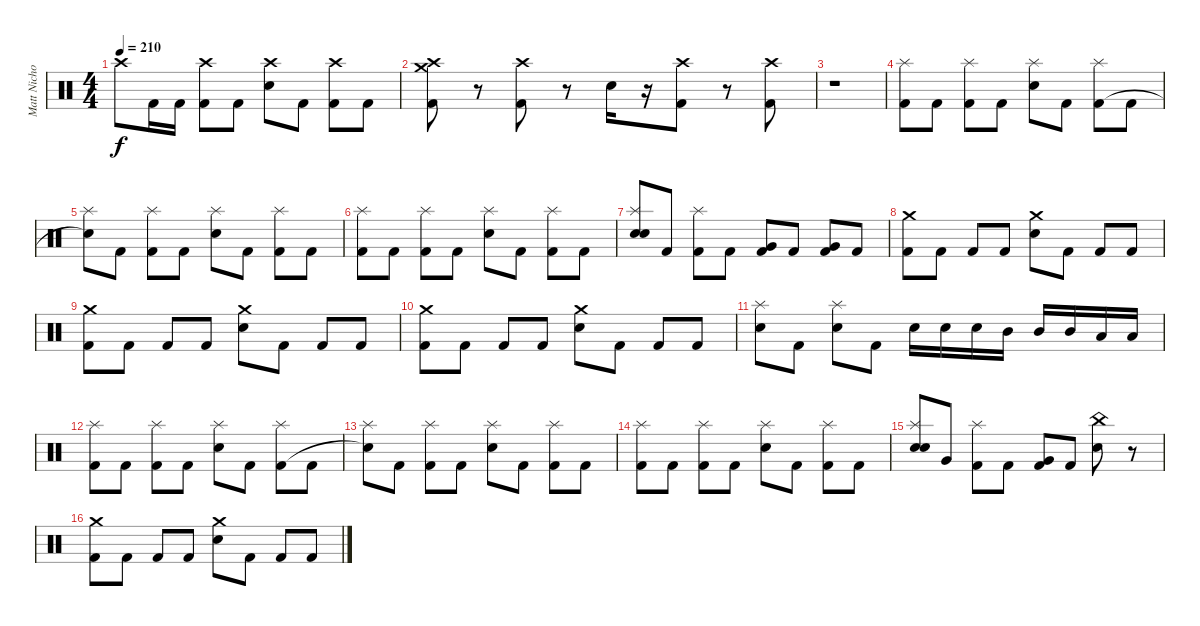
\track ("Matt Nichols" "Matt Nicho") {instrument percussion}
\staff {score}
\articulation defaults
\ts (4 4)
\tempo 210
\clef neutral
\ks c "Crash high (hit)".8{dy f} "Kick (hit) 2".16 "Kick (hit) 2".16
("Crash high (hit)" "Kick (hit) 2").8 "Kick (hit) 2".8 ("Crash high (hit)" "Snare (hit) 2").8 "Kick (hit) 2".8 ("Crash high (hit)" "Kick (hit) 2").8 "Kick (hit) 2".8 |
("Crash high (hit)" "Crash medium (hit)" "Kick (hit) 2").8 r.8 ("Crash high (hit)" "Kick (hit) 2").8 r.8 "Snare (hit) 2".16 r.16 ("Crash high (hit)" "Kick (hit) 2").8 r.8 ("Crash high (hit)" "Kick (hit) 2").8 |
r.1 |
("Splash (hit)" "Kick (hit) 2").8 "Kick (hit) 2".8 ("Splash (hit)" "Kick (hit) 2").8 "Kick (hit) 2".8 ("Splash (hit)" "Electric Snare (hit)").8 "Kick (hit) 2".8 ("Splash (hit)" "Kick (hit) 2").8 "Kick (hit) 2".8 |
("Splash (hit)" "Snare (hit)"{t}).8 "Kick (hit) 2".8 ("Splash (hit)" "Kick (hit) 2").8 "Kick (hit) 2".8 ("Splash (hit)" "Electric Snare (hit)").8 "Kick (hit) 2".8 ("Splash (hit)" "Kick (hit) 2").8 "Kick (hit) 2".8 |
("Splash (hit)" "Kick (hit) 2").8 "Kick (hit) 2".8 ("Splash (hit)" "Kick (hit) 2").8 "Kick (hit) 2".8 ("Splash (hit)" "Electric Snare (hit)").8 "Kick (hit) 2".8 ("Splash (hit)" "Kick (hit) 2").8 "Kick (hit) 2".8 |
("Splash (hit)" "Electric Snare (hit)" "Snare (hit)").8 "Kick (hit) 2".8 ("Splash (hit)" "Kick (hit) 2").8 "Kick (hit) 2".8 ("Very Low Tom (hit)" "Kick (hit) 2").8 "Kick (hit) 2".8 ("Very Low Tom (hit)" "Kick (hit) 2").8 "Kick (hit) 2".8 |
("Crash medium (hit)" "Kick (hit) 2").8 "Kick (hit) 2".8 "Kick (hit) 2".8 "Kick (hit) 2".8 ("Crash medium (hit)" "Electric Snare (hit)").8 "Kick (hit) 2".8 "Kick (hit) 2".8 "Kick (hit) 2".8 |
("Crash medium (hit)" "Kick (hit) 2").8 "Kick (hit) 2".8 "Kick (hit) 2".8 "Kick (hit) 2".8 ("Crash medium (hit)" "Electric Snare (hit)").8 "Kick (hit) 2".8 "Kick (hit) 2".8 "Kick (hit) 2".8 |
("Crash medium (hit)" "Kick (hit) 2").8 "Kick (hit) 2".8 "Kick (hit) 2".8 "Kick (hit) 2".8 ("Crash medium (hit)" "Electric Snare (hit)").8 "Kick (hit) 2".8 "Kick (hit) 2".8 "Kick (hit) 2".8 |
("Splash (hit)" "Electric Snare (hit)").8 "Kick (hit) 2".8 ("Splash (hit)" "Electric Snare (hit)").8 "Kick (hit) 2".8 "Electric Snare (hit)".16 "Electric Snare (hit)".16 "Electric Snare (hit)".16 "Mid Tom (hit)".16 "Mid Tom (hit)".16 "Mid Tom (hit)".16 "Low Tom (hit)".16 "Low Tom (hit)".16 |
("Splash (hit)" "Kick (hit) 2").8 "Kick (hit) 2".8 ("Splash (hit)" "Kick (hit) 2").8 "Kick (hit) 2".8 ("Splash (hit)" "Electric Snare (hit)").8 "Kick (hit) 2".8 ("Splash (hit)" "Kick (hit) 2").8 "Kick (hit) 2".8 |
("Splash (hit)" "Snare (hit)"{t}).8 "Kick (hit) 2".8 ("Splash (hit)" "Kick (hit) 2").8 "Kick (hit) 2".8 ("Splash (hit)" "Electric Snare (hit)").8 "Kick (hit) 2".8 ("Splash (hit)" "Kick (hit) 2").8 "Kick (hit) 2".8 |
("Splash (hit)" "Kick (hit) 2").8 "Kick (hit) 2".8 ("Splash (hit)" "Kick (hit) 2").8 "Kick (hit) 2".8 ("Splash (hit)" "Electric Snare (hit)").8 "Kick (hit) 2".8 ("Splash (hit)" "Kick (hit) 2").8 "Kick (hit) 2".8 |
("Splash (hit)" "Electric Snare (hit)" "Snare (hit)").8 "Very Low Tom (hit)".8 ("Splash (hit)" "Kick (hit) 2").8 "Kick (hit) 2".8 ("Very Low Tom (hit)" "Kick (hit) 2").8 "Kick (hit) 2".8 ("China (hit)" "Electric Snare (hit)").8 r.8 |
("Crash medium (hit)" "Kick (hit) 2").8 "Kick (hit) 2".8 "Kick (hit) 2".8 "Kick (hit) 2".8 ("Crash medium (hit)" "Electric Snare (hit)").8 "Kick (hit) 2".8 "Kick (hit) 2".8 "Kick (hit) 2".8
